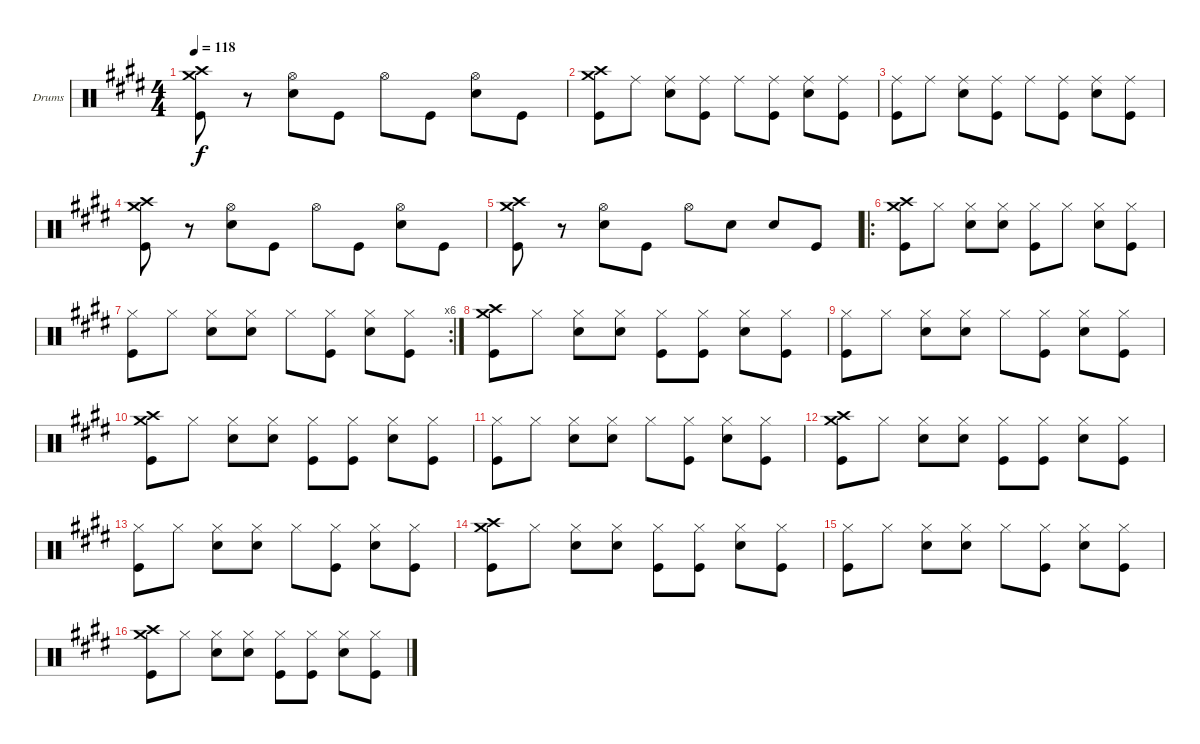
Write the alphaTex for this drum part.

\defaultSystemsLayout 4
\bracketExtendMode groupsimilarinstruments
\firstSystemTrackNameOrientation horizontal
\otherSystemsTrackNameOrientation horizontal
\track ("Drumkit" "Drums") {instrument percussion}
\staff {score}
\articulation defaults
\ts (4 4)
\scale
0.27381
\tempo 118
\accidentals auto
\clef neutral
\ottava regular
\simile none
\ks e
("Crash medium (hit)" "Crash high (hit)" "Kick (hit)").8{dy f} r.8 ("Hi-Hat (open)" "Snare (hit) 2").8 "Kick (hit)".8 "Hi-Hat (open)".8 "Kick (hit)".8 ("Hi-Hat (open)" "Snare (hit) 2").8 "Kick (hit)".8 |
\scale
0.355556 ("Crash medium (hit)" "Crash high (hit)" "Kick (hit)").8 "Ride (middle)".8 ("Ride (middle)" "Snare (hit) 2").8 ("Ride (middle)" "Kick (hit)").8 "Ride (middle)".8 ("Ride (middle)" "Kick (hit)").8 ("Ride (middle)" "Snare (hit) 2").8 ("Ride (middle)" "Kick (hit)").8 |
\scale
0.233333 ("Ride (middle)" "Kick (hit)").8 "Ride (middle)".8 ("Ride (middle)" "Snare (hit) 2").8 ("Ride (middle)" "Kick (hit)").8 "Ride (middle)".8 ("Ride (middle)" "Kick (hit)").8 ("Ride (middle)" "Snare (hit) 2").8 ("Ride (middle)" "Kick (hit)").8 |
\scale
0.411111 ("Crash medium (hit)" "Crash high (hit)" "Kick (hit)").8 r.8 ("Hi-Hat (open)" "Snare (hit) 2").8 "Kick (hit)".8 "Hi-Hat (open)".8 "Kick (hit)".8 ("Hi-Hat (open)" "Snare (hit) 2").8 "Kick (hit)".8 |
\scale
0.480938 ("Crash medium (hit)" "Crash high (hit)" "Kick (hit)").8 r.8 ("Hi-Hat (open)" "Snare (hit) 2").8 "Kick (hit)".8 "Hi-Hat (open)".8 "Snare (hit) 2".8 "Snare (hit) 2".8 "Kick (hit)".8 |
\ro
\scale
0.26393 ("Crash medium (hit)" "Crash high (hit)" "Kick (hit)").8 "Hi-Hat (closed)".8 ("Hi-Hat (closed)" "Snare (hit) 2").8 ("Hi-Hat (closed)" "Snare (hit) 2").8 ("Hi-Hat (closed)" "Kick (hit)").8 "Hi-Hat (closed)".8 ("Hi-Hat (closed)" "Snare (hit) 2").8 ("Hi-Hat (closed)" "Kick (hit)").8 |
\rc 6
\scale
0.255132 ("Hi-Hat (closed)" "Kick (hit)").8 "Hi-Hat (closed)".8 ("Hi-Hat (closed)" "Snare (hit) 2").8 ("Hi-Hat (closed)" "Snare (hit) 2").8 "Hi-Hat (closed)".8 ("Hi-Hat (closed)" "Kick (hit)").8 ("Hi-Hat (closed)" "Snare (hit) 2").8 ("Hi-Hat (closed)" "Kick (hit)").8 |
\scale
0.37931 ("Crash medium (hit)" "Crash high (hit)" "Kick (hit)").8 "Hi-Hat (closed)".8 ("Hi-Hat (closed)" "Snare (hit) 2").8 ("Hi-Hat (closed)" "Snare (hit) 2").8 ("Hi-Hat (closed)" "Kick (hit)").8 ("Hi-Hat (closed)" "Kick (hit)").8 ("Hi-Hat (closed)" "Snare (hit) 2").8 ("Hi-Hat (closed)" "Kick (hit)").8 |
\scale
0.37931 ("Hi-Hat (closed)" "Kick (hit)").8 "Hi-Hat (closed)".8 ("Hi-Hat (closed)" "Snare (hit) 2").8 ("Hi-Hat (closed)" "Snare (hit) 2").8 "Hi-Hat (closed)".8 ("Hi-Hat (closed)" "Kick (hit)").8 ("Hi-Hat (closed)" "Snare (hit) 2").8 ("Hi-Hat (closed)" "Kick (hit)").8 |
\scale
0.241379 ("Crash medium (hit)" "Crash high (hit)" "Kick (hit)").8 "Hi-Hat (closed)".8 ("Hi-Hat (closed)" "Snare (hit) 2").8 ("Hi-Hat (closed)" "Snare (hit) 2").8 ("Hi-Hat (closed)" "Kick (hit)").8 ("Hi-Hat (closed)" "Kick (hit)").8 ("Hi-Hat (closed)" "Snare (hit) 2").8 ("Hi-Hat (closed)" "Kick (hit)").8 |
\scale
0.297297 ("Hi-Hat (closed)" "Kick (hit)").8 "Hi-Hat (closed)".8 ("Hi-Hat (closed)" "Snare (hit) 2").8 ("Hi-Hat (closed)" "Snare (hit) 2").8 "Hi-Hat (closed)".8 ("Hi-Hat (closed)" "Kick (hit)").8 ("Hi-Hat (closed)" "Snare (hit) 2").8 ("Hi-Hat (closed)" "Kick (hit)").8 |
\scale
0.477477 ("Crash medium (hit)" "Crash high (hit)" "Kick (hit)").8 "Hi-Hat (closed)".8 ("Hi-Hat (closed)" "Snare (hit) 2").8 ("Hi-Hat (closed)" "Snare (hit) 2").8 ("Hi-Hat (closed)" "Kick (hit)").8 ("Hi-Hat (closed)" "Kick (hit)").8 ("Hi-Hat (closed)" "Snare (hit) 2").8 ("Hi-Hat (closed)" "Kick (hit)").8 |
\scale
0.225225 ("Hi-Hat (closed)" "Kick (hit)").8 "Hi-Hat (closed)".8 ("Hi-Hat (closed)" "Snare (hit) 2").8 ("Hi-Hat (closed)" "Snare (hit) 2").8 "Hi-Hat (closed)".8 ("Hi-Hat (closed)" "Kick (hit)").8 ("Hi-Hat (closed)" "Snare (hit) 2").8 ("Hi-Hat (closed)" "Kick (hit)").8 |
\scale
0.521498 ("Crash medium (hit)" "Crash high (hit)" "Kick (hit)").8 "Hi-Hat (closed)".8 ("Hi-Hat (closed)" "Snare (hit) 2").8 ("Hi-Hat (closed)" "Snare (hit) 2").8 ("Hi-Hat (closed)" "Kick (hit)").8 ("Hi-Hat (closed)" "Kick (hit)").8 ("Hi-Hat (closed)" "Snare (hit) 2").8 ("Hi-Hat (closed)" "Kick (hit)").8 |
\scale
0.23301 ("Hi-Hat (closed)" "Kick (hit)").8 "Hi-Hat (closed)".8 ("Hi-Hat (closed)" "Snare (hit) 2").8 ("Hi-Hat (closed)" "Snare (hit) 2").8 "Hi-Hat (closed)".8 ("Hi-Hat (closed)" "Kick (hit)").8 ("Hi-Hat (closed)" "Snare (hit) 2").8 ("Hi-Hat (closed)" "Kick (hit)").8 |
\scale
0.245492 ("Crash medium (hit)" "Crash high (hit)" "Kick (hit)").8 "Hi-Hat (closed)".8 ("Hi-Hat (closed)" "Snare (hit) 2").8 ("Hi-Hat (closed)" "Snare (hit) 2").8 ("Hi-Hat (closed)" "Kick (hit)").8 ("Hi-Hat (closed)" "Kick (hit)").8 ("Hi-Hat (closed)" "Snare (hit) 2").8 ("Hi-Hat (closed)" "Kick (hit)").8
